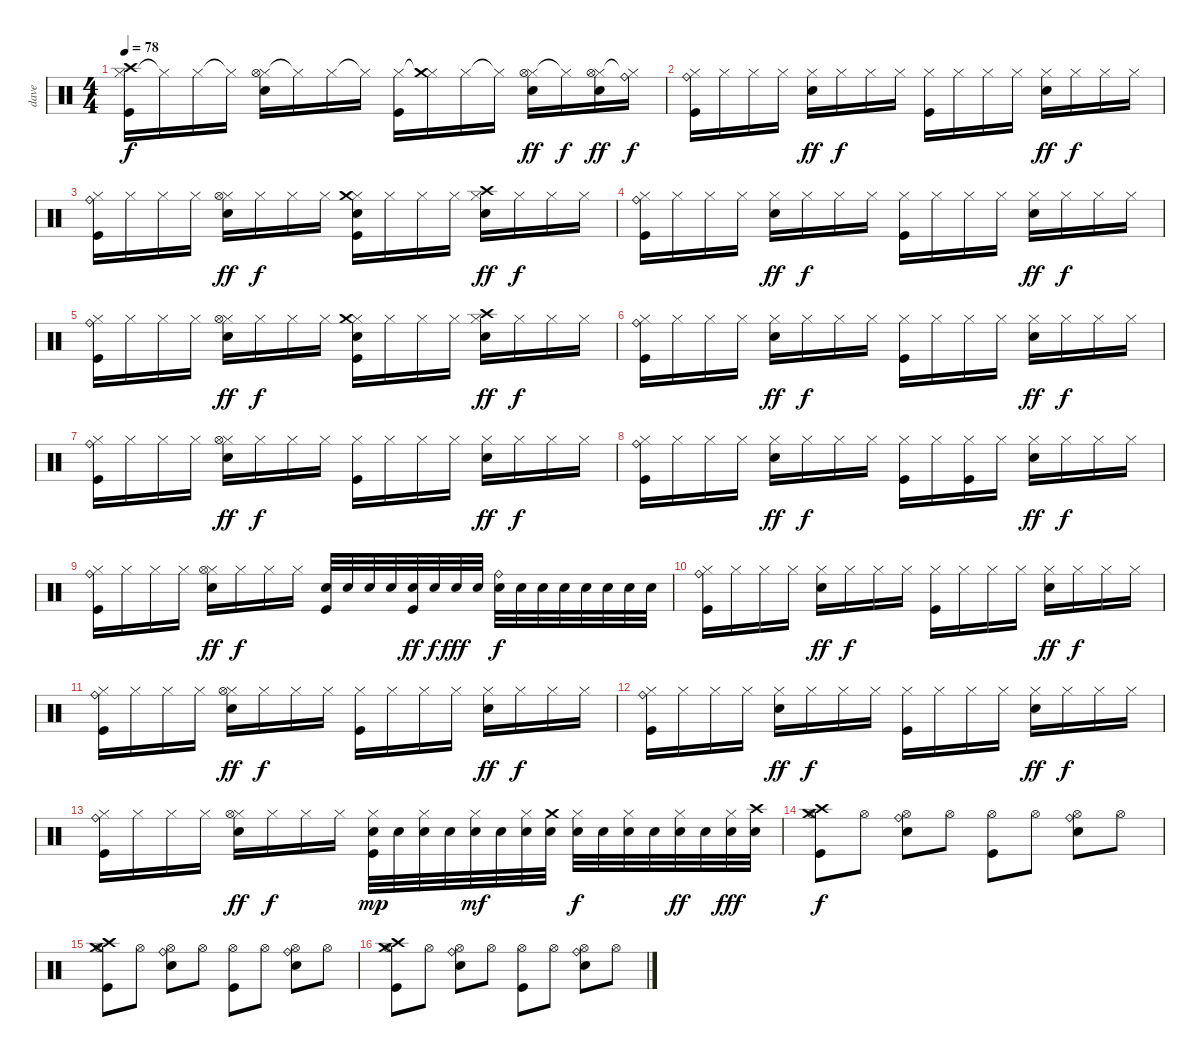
\track ("dave" "dave") {instrument percussion}
\staff {score}
\articulation defaults
\ts (4 4)
\tempo 78
\clef neutral
\ks c
("Hi-Hat (closed)" "Crash high (hit)" "Kick (hit)").16{dy f} "Hi-Hat (closed)"{t}.16 "Hi-Hat (closed)".16 "Hi-Hat (closed)"{t}.16 ("Hi-Hat (closed)" "Hi-Hat (open)" "Snare (hit) 2").16 "Hi-Hat (closed)"{t}.16 "Hi-Hat (closed)".16 "Hi-Hat (closed)"{t}.16 ("Hi-Hat (closed)" "Kick (hit)").16 ("Hi-Hat (closed)"{t} "Crash medium (hit)").16 "Hi-Hat (closed)".16 "Hi-Hat (closed)"{t}.16 ("Hi-Hat (closed)" "Hi-Hat (open)" "Snare (hit) 2").16{dy ff} "Hi-Hat (closed)"{t}.16{dy f} ("Hi-Hat (closed)" "Hi-Hat (open)" "Snare (hit) 2").16{dy ff} ("Hi-Hat (closed)"{t} "Ride (bell)").16{dy f} |
("Hi-Hat (closed)" "Ride (bell)" "Kick (hit)").16 "Hi-Hat (closed)".16 "Hi-Hat (closed)".16 "Hi-Hat (closed)".16 ("Hi-Hat (closed)" "Snare (hit) 2").16{dy ff} "Hi-Hat (closed)".16{dy f} "Hi-Hat (closed)".16 "Hi-Hat (closed)".16 ("Hi-Hat (closed)" "Kick (hit)").16 "Hi-Hat (closed)".16 "Hi-Hat (closed)".16 "Hi-Hat (closed)".16 ("Hi-Hat (closed)" "Snare (hit) 2").16{dy ff} "Hi-Hat (closed)".16{dy f} "Hi-Hat (closed)".16 "Hi-Hat (closed)".16 |
("Hi-Hat (closed)" "Ride (bell)" "Kick (hit)").16 "Hi-Hat (closed)".16 "Hi-Hat (closed)".16 "Hi-Hat (closed)".16 ("Hi-Hat (closed)" "Hi-Hat (open)" "Snare (hit) 2").16{dy ff} "Hi-Hat (closed)".16{dy f} "Hi-Hat (closed)".16 "Hi-Hat (closed)".16 ("Hi-Hat (closed)" "Crash medium (hit)" "Snare (hit) 2" "Kick (hit)").16 "Hi-Hat (closed)".16 "Hi-Hat (closed)".16 "Hi-Hat (closed)".16 ("Hi-Hat (closed)" "Crash high (hit)" "Snare (hit) 2").16{dy ff} "Hi-Hat (closed)".16{dy f} "Hi-Hat (closed)".16 "Hi-Hat (closed)".16 |
("Hi-Hat (closed)" "Ride (bell)" "Kick (hit)").16 "Hi-Hat (closed)".16 "Hi-Hat (closed)".16 "Hi-Hat (closed)".16 ("Hi-Hat (closed)" "Snare (hit) 2").16{dy ff} "Hi-Hat (closed)".16{dy f} "Hi-Hat (closed)".16 "Hi-Hat (closed)".16 ("Hi-Hat (closed)" "Kick (hit)").16 "Hi-Hat (closed)".16 "Hi-Hat (closed)".16 "Hi-Hat (closed)".16 ("Hi-Hat (closed)" "Snare (hit) 2").16{dy ff} "Hi-Hat (closed)".16{dy f} "Hi-Hat (closed)".16 "Hi-Hat (closed)".16 |
("Hi-Hat (closed)" "Ride (bell)" "Kick (hit)").16 "Hi-Hat (closed)".16 "Hi-Hat (closed)".16 "Hi-Hat (closed)".16 ("Hi-Hat (closed)" "Hi-Hat (open)" "Snare (hit) 2").16{dy ff} "Hi-Hat (closed)".16{dy f} "Hi-Hat (closed)".16 "Hi-Hat (closed)".16 ("Hi-Hat (closed)" "Crash medium (hit)" "Snare (hit) 2" "Kick (hit)").16 "Hi-Hat (closed)".16 "Hi-Hat (closed)".16 "Hi-Hat (closed)".16 ("Hi-Hat (closed)" "Crash high (hit)" "Snare (hit) 2").16{dy ff} "Hi-Hat (closed)".16{dy f} "Hi-Hat (closed)".16 "Hi-Hat (closed)".16 |
("Hi-Hat (closed)" "Ride (bell)" "Kick (hit)").16 "Hi-Hat (closed)".16 "Hi-Hat (closed)".16 "Hi-Hat (closed)".16 ("Hi-Hat (closed)" "Snare (hit) 2").16{dy ff} "Hi-Hat (closed)".16{dy f} "Hi-Hat (closed)".16 "Hi-Hat (closed)".16 ("Hi-Hat (closed)" "Kick (hit)").16 "Hi-Hat (closed)".16 "Hi-Hat (closed)".16 "Hi-Hat (closed)".16 ("Hi-Hat (closed)" "Snare (hit) 2").16{dy ff} "Hi-Hat (closed)".16{dy f} "Hi-Hat (closed)".16 "Hi-Hat (closed)".16 |
("Hi-Hat (closed)" "Ride (bell)" "Kick (hit)").16 "Hi-Hat (closed)".16 "Hi-Hat (closed)".16 "Hi-Hat (closed)".16 ("Hi-Hat (closed)" "Hi-Hat (open)" "Snare (hit) 2").16{dy ff} "Hi-Hat (closed)".16{dy f} "Hi-Hat (closed)".16 "Hi-Hat (closed)".16 ("Hi-Hat (closed)" "Kick (hit)").16 "Hi-Hat (closed)".16 "Hi-Hat (closed)".16 "Hi-Hat (closed)".16 ("Hi-Hat (closed)" "Snare (hit) 2").16{dy ff} "Hi-Hat (closed)".16{dy f} "Hi-Hat (closed)".16 "Hi-Hat (closed)".16 |
("Hi-Hat (closed)" "Ride (bell)" "Kick (hit)").16 "Hi-Hat (closed)".16 "Hi-Hat (closed)".16 "Hi-Hat (closed)".16 ("Hi-Hat (closed)" "Snare (hit) 2").16{dy ff} "Hi-Hat (closed)".16{dy f} "Hi-Hat (closed)".16 "Hi-Hat (closed)".16 ("Hi-Hat (closed)" "Kick (hit)").16 "Hi-Hat (closed)".16 ("Hi-Hat (closed)" "Kick (hit)").16 "Hi-Hat (closed)".16 ("Hi-Hat (closed)" "Snare (hit) 2").16{dy ff} "Hi-Hat (closed)".16{dy f} "Hi-Hat (closed)".16 "Hi-Hat (closed)".16 |
("Hi-Hat (closed)" "Ride (bell)" "Kick (hit)").16 "Hi-Hat (closed)".16 "Hi-Hat (closed)".16 "Hi-Hat (closed)".16 ("Hi-Hat (closed)" "Hi-Hat (open)" "Snare (hit) 2").16{dy ff} "Hi-Hat (closed)".16{dy f} "Hi-Hat (closed)".16 "Hi-Hat (closed)".16 ("Snare (hit) 2" "Kick (hit)").32 "Snare (hit) 2".32 "Snare (hit) 2".32 "Snare (hit) 2".32 ("Snare (hit) 2" "Kick (hit)").32{dy ff} "Snare (hit) 2".32{dy f} "Snare (hit) 2".32{dy fff} "Snare (hit) 2".32 ("Ride (bell)" "Snare (hit) 2").32{dy f} "Snare (hit) 2".32 "Snare (hit) 2".32 "Snare (hit) 2".32 "Snare (hit) 2".32 "Snare (hit) 2".32 "Snare (hit) 2".32 "Snare (hit) 2".32 |
("Hi-Hat (closed)" "Ride (bell)" "Kick (hit)").16 "Hi-Hat (closed)".16 "Hi-Hat (closed)".16 "Hi-Hat (closed)".16 ("Hi-Hat (closed)" "Snare (hit) 2").16{dy ff} "Hi-Hat (closed)".16{dy f} "Hi-Hat (closed)".16 "Hi-Hat (closed)".16 ("Hi-Hat (closed)" "Kick (hit)").16 "Hi-Hat (closed)".16 "Hi-Hat (closed)".16 "Hi-Hat (closed)".16 ("Hi-Hat (closed)" "Snare (hit) 2").16{dy ff} "Hi-Hat (closed)".16{dy f} "Hi-Hat (closed)".16 "Hi-Hat (closed)".16 |
("Hi-Hat (closed)" "Ride (bell)" "Kick (hit)").16 "Hi-Hat (closed)".16 "Hi-Hat (closed)".16 "Hi-Hat (closed)".16 ("Hi-Hat (closed)" "Hi-Hat (open)" "Snare (hit) 2").16{dy ff} "Hi-Hat (closed)".16{dy f} "Hi-Hat (closed)".16 "Hi-Hat (closed)".16 ("Hi-Hat (closed)" "Kick (hit)").16 "Hi-Hat (closed)".16 "Hi-Hat (closed)".16 "Hi-Hat (closed)".16 ("Hi-Hat (closed)" "Snare (hit) 2").16{dy ff} "Hi-Hat (closed)".16{dy f} "Hi-Hat (closed)".16 "Hi-Hat (closed)".16 |
("Hi-Hat (closed)" "Ride (bell)" "Kick (hit)").16 "Hi-Hat (closed)".16 "Hi-Hat (closed)".16 "Hi-Hat (closed)".16 ("Hi-Hat (closed)" "Snare (hit) 2").16{dy ff} "Hi-Hat (closed)".16{dy f} "Hi-Hat (closed)".16 "Hi-Hat (closed)".16 ("Hi-Hat (closed)" "Kick (hit)").16 "Hi-Hat (closed)".16 "Hi-Hat (closed)".16 "Hi-Hat (closed)".16 ("Hi-Hat (closed)" "Snare (hit) 2").16{dy ff} "Hi-Hat (closed)".16{dy f} "Hi-Hat (closed)".16 "Hi-Hat (closed)".16 |
("Hi-Hat (closed)" "Ride (bell)" "Kick (hit)").16 "Hi-Hat (closed)".16 "Hi-Hat (closed)".16 "Hi-Hat (closed)".16 ("Hi-Hat (closed)" "Hi-Hat (open)" "Snare (hit) 2").16{dy ff} "Hi-Hat (closed)".16{dy f} "Hi-Hat (closed)".16 "Hi-Hat (closed)".16 ("Hi-Hat (closed)" "Snare (hit) 2" "Kick (hit)").32{dy mp} "Snare (hit) 2".32 ("Hi-Hat (closed)" "Snare (hit) 2").32 "Snare (hit) 2".32 ("Hi-Hat (closed)" "Snare (hit) 2").32{dy mf} "Snare (hit) 2".32 ("Hi-Hat (closed)" "Snare (hit) 2").32 ("Crash medium (hit)" "Snare (hit) 2").32 ("Hi-Hat (closed)" "Snare (hit) 2").32{dy f} "Snare (hit) 2".32 ("Hi-Hat (closed)" "Snare (hit) 2").32 "Snare (hit) 2".32 ("Hi-Hat (closed)" "Snare (hit) 2").32{dy ff} "Snare (hit) 2".32 ("Hi-Hat (closed)" "Snare (hit) 2").32{dy fff} ("Crash high (hit)" "Snare (hit) 2").32 |
("Hi-Hat (open)" "Crash medium (hit)" "Crash high (hit)" "Kick (hit)").8{dy f} "Hi-Hat (open)".8 ("Hi-Hat (open)" "Ride (bell)" "Snare (hit) 2").8 "Hi-Hat (open)".8 ("Hi-Hat (open)" "Kick (hit)").8 "Hi-Hat (open)".8 ("Hi-Hat (open)" "Ride (bell)" "Snare (hit) 2").8 "Hi-Hat (open)".8 |
("Hi-Hat (open)" "Crash medium (hit)" "Crash high (hit)" "Kick (hit)").8 "Hi-Hat (open)".8 ("Hi-Hat (open)" "Ride (bell)" "Snare (hit) 2").8 "Hi-Hat (open)".8 ("Hi-Hat (open)" "Kick (hit)").8 "Hi-Hat (open)".8 ("Hi-Hat (open)" "Ride (bell)" "Snare (hit) 2").8 "Hi-Hat (open)".8 |
("Hi-Hat (open)" "Crash medium (hit)" "Crash high (hit)" "Kick (hit)").8 "Hi-Hat (open)".8 ("Hi-Hat (open)" "Ride (bell)" "Snare (hit) 2").8 "Hi-Hat (open)".8 ("Hi-Hat (open)" "Kick (hit)").8 "Hi-Hat (open)".8 ("Hi-Hat (open)" "Ride (bell)" "Snare (hit) 2").8 "Hi-Hat (open)".8
